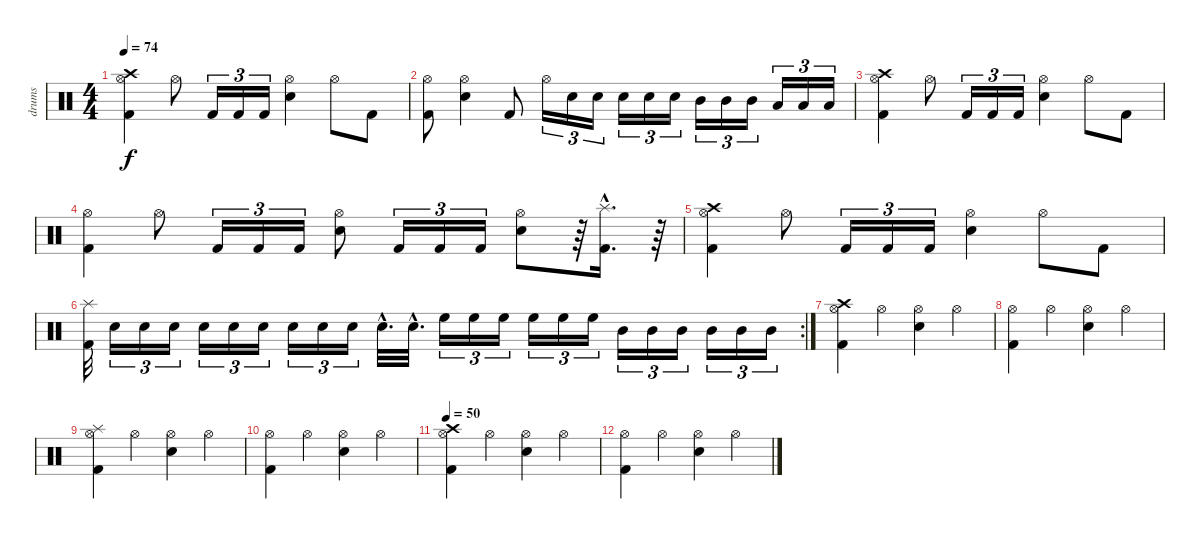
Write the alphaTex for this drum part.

\track ("drums" "drums") {instrument percussion}
\staff {score}
\articulation defaults
\ts (4 4)
\tempo 74
\clef neutral
\ks c
("Kick (hit) 2" "Crash high (hit)" "Hi-Hat (open)").4{dy f} "Hi-Hat (open)".8 "Kick (hit) 2".16{tu (3 2)} "Kick (hit) 2".16{tu (3 2)} "Kick (hit) 2".16{tu (3 2)} ("Hi-Hat (open)" "Snare (hit) 2").4 "Hi-Hat (open)".8 "Kick (hit) 2".8 |
("Hi-Hat (open)" "Kick (hit) 2").8 ("Hi-Hat (open)" "Electric Snare (hit)").4 "Kick (hit) 2".8 "Hi-Hat (open)".16{tu (3 2)} "Electric Snare (hit)".16{tu (3 2)} "Electric Snare (hit)".16{tu (3 2)} "Electric Snare (hit)".16{tu (3 2)} "Electric Snare (hit)".16{tu (3 2)} "Electric Snare (hit)".16{tu (3 2)} "Mid Tom (hit)".16{tu (3 2)} "Mid Tom (hit)".16{tu (3 2)} "Mid Tom (hit)".16{tu (3 2)} "Low Tom (hit)".16{tu (3 2)} "Low Tom (hit)".16{tu (3 2)} "Low Tom (hit)".16{tu (3 2)} |
("Kick (hit) 2" "Crash high (hit)" "Hi-Hat (open)").4 "Hi-Hat (open)".8 "Kick (hit) 2".16{tu (3 2)} "Kick (hit) 2".16{tu (3 2)} "Kick (hit) 2".16{tu (3 2)} ("Hi-Hat (open)" "Snare (hit) 2").4 "Hi-Hat (open)".8 "Kick (hit) 2".8 |
("Hi-Hat (open)" "Kick (hit) 2").4 "Hi-Hat (open)".8 "Kick (hit) 2".16{tu (3 2)} "Kick (hit) 2".16{tu (3 2)} "Kick (hit) 2".16{tu (3 2)} ("Snare (hit) 2" "Hi-Hat (open)").8 "Kick (hit) 2".16{tu (3 2)} "Kick (hit) 2".16{tu (3 2)} "Kick (hit) 2".16{tu (3 2)} ("Hi-Hat (open)" "Snare (hit) 2").8 r.64 ("Splash (hit)"{hac} "Kick (hit) 2"{hac}).16{d} r.64 |
("Kick (hit) 2" "Crash high (hit)" "Hi-Hat (open)").4 "Hi-Hat (open)".8 "Kick (hit) 2".16{tu (3 2)} "Kick (hit) 2".16{tu (3 2)} "Kick (hit) 2".16{tu (3 2)} ("Hi-Hat (open)" "Snare (hit) 2").4 "Hi-Hat (open)".8 "Kick (hit) 2".8 |
\rc 2
("Splash (hit)" "Kick (hit) 2").32 "Electric Snare (hit)".16{tu (3 2)} "Electric Snare (hit)".16{tu (3 2)} "Electric Snare (hit)".16{tu (3 2)} "Electric Snare (hit)".16{tu (3 2)} "Electric Snare (hit)".16{tu (3 2)} "Electric Snare (hit)".16{tu (3 2)} "Electric Snare (hit)".16{tu (3 2)} "Electric Snare (hit)".16{tu (3 2)} "Electric Snare (hit)".16{tu (3 2)} "Electric Snare (hit)"{hac}.32{d} "Electric Snare (hit)"{hac}.32{d} "High Floor Tom (hit)".16{tu (3 2)} "High Floor Tom (hit)".16{tu (3 2)} "High Floor Tom (hit)".16{tu (3 2)} "High Floor Tom (hit)".16{tu (3 2)} "High Floor Tom (hit)".16{tu (3 2)} "High Floor Tom (hit)".16{tu (3 2)} "Mid Tom (hit)".16{tu (3 2)} "Mid Tom (hit)".16{tu (3 2)} "Mid Tom (hit)".16{tu (3 2)} "Mid Tom (hit)".16{tu (3 2)} "Mid Tom (hit)".16{tu (3 2)} "Mid Tom (hit)".16{tu (3 2)} |
("Kick (hit) 2" "Crash high (hit)" "Hi-Hat (open)").4 "Hi-Hat (open)".4 ("Hi-Hat (open)" "Snare (hit) 2").4 "Hi-Hat (open)".4 |
("Kick (hit) 2" "Hi-Hat (open)").4 "Hi-Hat (open)".4 ("Hi-Hat (open)" "Snare (hit) 2").4 "Hi-Hat (open)".4 |
("Kick (hit) 2" "Splash (hit)" "Hi-Hat (open)").4 "Hi-Hat (open)".4 ("Hi-Hat (open)" "Snare (hit) 2").4 "Hi-Hat (open)".4 |
("Kick (hit) 2" "Hi-Hat (open)").4 "Hi-Hat (open)".4 ("Hi-Hat (open)" "Snare (hit) 2").4 "Hi-Hat (open)".4 |
\tempo 50
("Kick (hit) 2" "Crash high (hit)" "Hi-Hat (open)").4 "Hi-Hat (open)".4 ("Hi-Hat (open)" "Snare (hit) 2").4 "Hi-Hat (open)".4 |
("Kick (hit) 2" "Hi-Hat (open)").4 "Hi-Hat (open)".4 ("Hi-Hat (open)" "Snare (hit) 2").4 "Hi-Hat (open)".4
